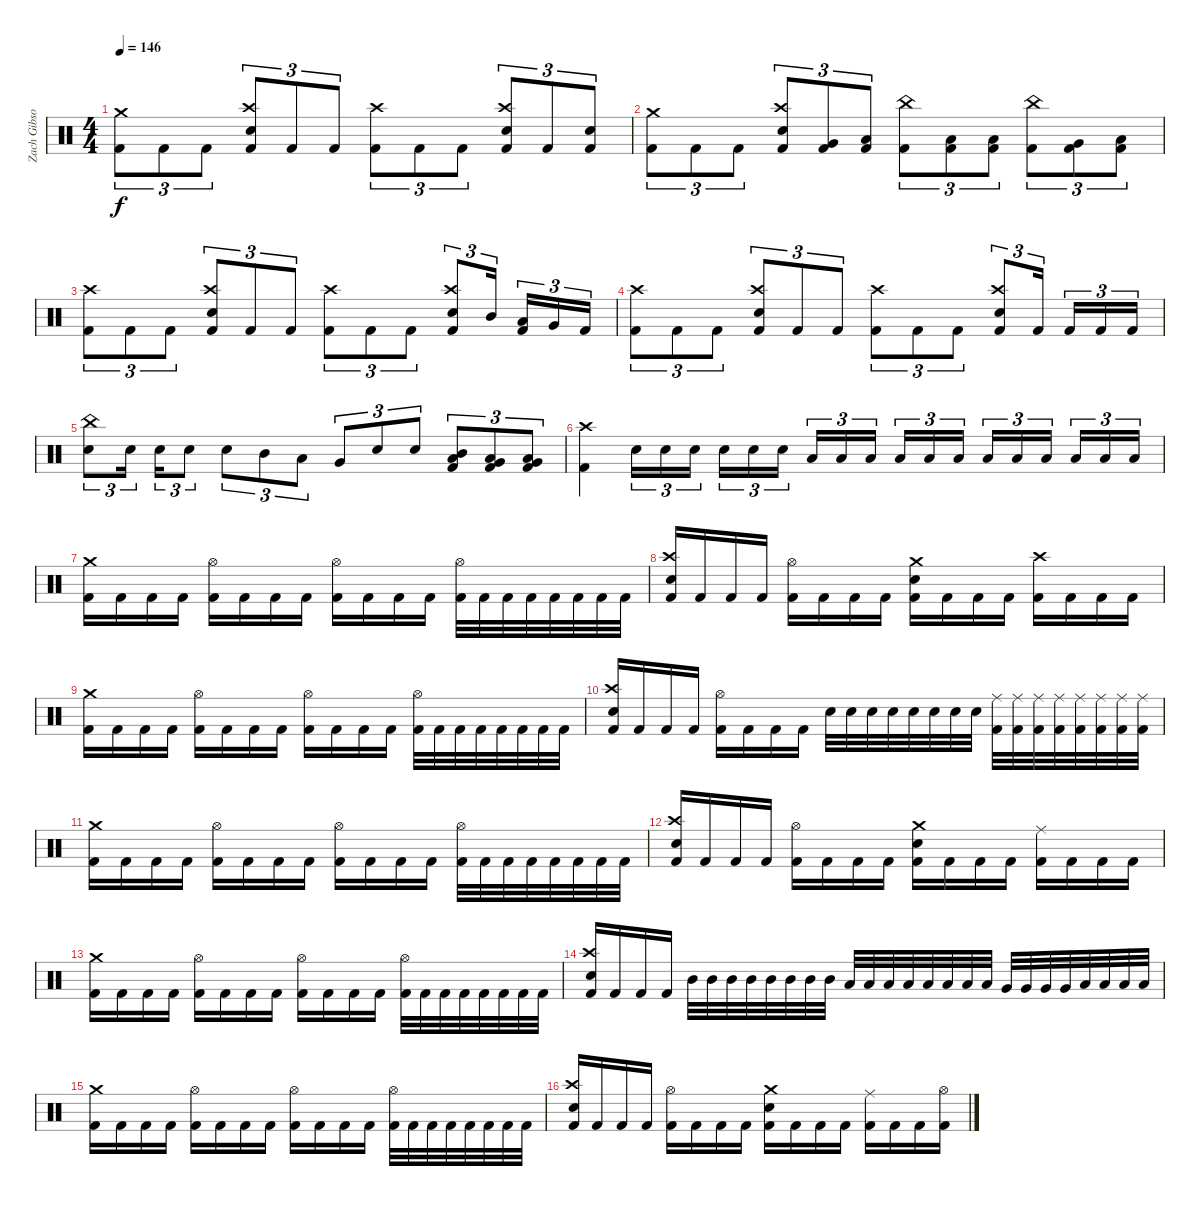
\track ("Zach Gibson (Drums)" "Zach Gibso") {instrument percussion}
\staff {score}
\articulation defaults
\ts (4 4)
\tempo 146
\clef neutral
\ks c
("Crash medium (hit)" "Kick (hit) 2").8{tu (3 2) dy f} "Kick (hit) 2".8{tu (3 2)} "Kick (hit) 2".8{tu (3 2)} ("Crash high (hit)" "Snare (hit) 2" "Kick (hit) 2").8{tu (3 2)} "Kick (hit) 2".8{tu (3 2)} "Kick (hit) 2".8{tu (3 2)} ("Crash high (hit)" "Kick (hit) 2").8{tu (3 2)} "Kick (hit) 2".8{tu (3 2)} "Kick (hit) 2".8{tu (3 2)} ("Crash high (hit)" "Snare (hit) 2" "Kick (hit) 2").8{tu (3 2)} "Kick (hit) 2".8{tu (3 2)} ("Snare (hit) 2" "Kick (hit) 2").8{tu (3 2)} |
("Crash medium (hit)" "Kick (hit) 2").8{tu (3 2)} "Kick (hit) 2".8{tu (3 2)} "Kick (hit) 2".8{tu (3 2)} ("Crash high (hit)" "Snare (hit) 2" "Kick (hit) 2").8{tu (3 2)} ("Very Low Tom (hit)" "Kick (hit) 2").8{tu (3 2)} ("Low Floor Tom (hit)" "Kick (hit) 2").8{tu (3 2)} ("China (hit)" "Kick (hit) 2").8{tu (3 2)} ("Low Tom (hit)" "Kick (hit) 2").8{tu (3 2)} ("Low Floor Tom (hit)" "Kick (hit) 2").8{tu (3 2)} ("China (hit)" "Kick (hit) 2").8{tu (3 2)} ("Very Low Tom (hit)" "Kick (hit) 2").8{tu (3 2)} ("Low Floor Tom (hit)" "Kick (hit) 2").8{tu (3 2)} |
("Crash high (hit)" "Kick (hit) 2").8{tu (3 2)} "Kick (hit) 2".8{tu (3 2)} "Kick (hit) 2".8{tu (3 2)} ("Crash high (hit)" "Snare (hit) 2" "Kick (hit) 2").8{tu (3 2)} "Kick (hit) 2".8{tu (3 2)} "Kick (hit) 2".8{tu (3 2)} ("Crash high (hit)" "Kick (hit) 2").8{tu (3 2)} "Kick (hit) 2".8{tu (3 2)} "Kick (hit) 2".8{tu (3 2)} ("Crash high (hit)" "Snare (hit) 2" "Kick (hit) 2").8{tu (3 2)} "Mid Tom (hit)".16{tu (3 2)} ("Low Tom (hit)" "Kick (hit) 2").16{tu (3 2)} "Very Low Tom (hit)".16{tu (3 2)} "Kick (hit) 2".16{tu (3 2)} |
("Crash high (hit)" "Kick (hit) 2").8{tu (3 2)} "Kick (hit) 2".8{tu (3 2)} "Kick (hit) 2".8{tu (3 2)} ("Crash high (hit)" "Snare (hit) 2" "Kick (hit) 2").8{tu (3 2)} "Kick (hit) 2".8{tu (3 2)} "Kick (hit) 2".8{tu (3 2)} ("Crash high (hit)" "Kick (hit) 2").8{tu (3 2)} "Kick (hit) 2".8{tu (3 2)} "Kick (hit) 2".8{tu (3 2)} ("Crash high (hit)" "Snare (hit) 2" "Kick (hit) 2").8{tu (3 2)} "Kick (hit) 2".16{tu (3 2)} "Kick (hit) 2".16{tu (3 2)} "Kick (hit) 2".16{tu (3 2)} "Kick (hit) 2".16{tu (3 2)} |
("China (hit)" "Snare (hit) 2").8{tu (3 2)} "Snare (hit) 2".16{tu (3 2)} "Snare (hit) 2".16{tu (3 2)} "Snare (hit) 2".8{tu (3 2)} "Snare (hit) 2".8{tu (3 2)} "Mid Tom (hit)".8{tu (3 2)} "Low Tom (hit)".8{tu (3 2)} "Very Low Tom (hit)".8{tu (3 2)} "Snare (hit) 2".8{tu (3 2)} "Snare (hit) 2".8{tu (3 2)} ("Mid Tom (hit)" "Kick (hit) 2" "Low Tom (hit)").8{tu (3 2)} ("Low Tom (hit)" "Kick (hit) 2" "Very Low Tom (hit)").8{tu (3 2)} ("Very Low Tom (hit)" "Kick (hit) 2" "Low Floor Tom (hit)").8{tu (3 2)} |
("Crash high (hit)" "Kick (hit) 2").4 "Snare (hit) 2".16{tu (3 2)} "Snare (hit) 2".16{tu (3 2)} "Snare (hit) 2".16{tu (3 2)} "Snare (hit) 2".16{tu (3 2)} "Snare (hit) 2".16{tu (3 2)} "Snare (hit) 2".16{tu (3 2)} "Low Tom (hit)".16{tu (3 2)} "Low Tom (hit)".16{tu (3 2)} "Low Tom (hit)".16{tu (3 2)} "Low Tom (hit)".16{tu (3 2)} "Low Tom (hit)".16{tu (3 2)} "Low Tom (hit)".16{tu (3 2)} "Low Floor Tom (hit)".16{tu (3 2)} "Low Floor Tom (hit)".16{tu (3 2)} "Low Floor Tom (hit)".16{tu (3 2)} "Low Floor Tom (hit)".16{tu (3 2)} "Low Floor Tom (hit)".16{tu (3 2)} "Low Floor Tom (hit)".16{tu (3 2)} |
("Crash medium (hit)" "Kick (hit) 2").16 "Kick (hit) 2".16 "Kick (hit) 2".16 "Kick (hit) 2".16 ("Hi-Hat (open)" "Kick (hit) 2").16 "Kick (hit) 2".16 "Kick (hit) 2".16 "Kick (hit) 2".16 ("Hi-Hat (open)" "Kick (hit) 2").16 "Kick (hit) 2".16 "Kick (hit) 2".16 "Kick (hit) 2".16 ("Hi-Hat (open)" "Kick (hit) 2").32 "Kick (hit) 2".32 "Kick (hit) 2".32 "Kick (hit) 2".32 "Kick (hit) 2".32 "Kick (hit) 2".32 "Kick (hit) 2".32 "Kick (hit) 2".32 |
("Snare (hit) 2" "Crash high (hit)" "Kick (hit) 2").16 "Kick (hit) 2".16 "Kick (hit) 2".16 "Kick (hit) 2".16 ("Hi-Hat (open)" "Kick (hit) 2").16 "Kick (hit) 2".16 "Kick (hit) 2".16 "Kick (hit) 2".16 ("Snare (hit) 2" "Crash medium (hit)" "Kick (hit) 2").16 "Kick (hit) 2".16 "Kick (hit) 2".16 "Kick (hit) 2".16 ("Crash high (hit)" "Kick (hit) 2").16 "Kick (hit) 2".16 "Kick (hit) 2".16 "Kick (hit) 2".16 |
("Crash medium (hit)" "Kick (hit) 2").16 "Kick (hit) 2".16 "Kick (hit) 2".16 "Kick (hit) 2".16 ("Hi-Hat (open)" "Kick (hit) 2").16 "Kick (hit) 2".16 "Kick (hit) 2".16 "Kick (hit) 2".16 ("Hi-Hat (open)" "Kick (hit) 2").16 "Kick (hit) 2".16 "Kick (hit) 2".16 "Kick (hit) 2".16 ("Hi-Hat (open)" "Kick (hit) 2").32 "Kick (hit) 2".32 "Kick (hit) 2".32 "Kick (hit) 2".32 "Kick (hit) 2".32 "Kick (hit) 2".32 "Kick (hit) 2".32 "Kick (hit) 2".32 |
("Snare (hit) 2" "Crash high (hit)" "Kick (hit) 2").16 "Kick (hit) 2".16 "Kick (hit) 2".16 "Kick (hit) 2".16 ("Hi-Hat (open)" "Kick (hit) 2").16 "Kick (hit) 2".16 "Kick (hit) 2".16 "Kick (hit) 2".16 "Snare (hit) 2".32 "Snare (hit) 2".32 "Snare (hit) 2".32 "Snare (hit) 2".32 "Snare (hit) 2".32 "Snare (hit) 2".32 "Snare (hit) 2".32 "Snare (hit) 2".32 ("Ride (middle)" "Kick (hit) 2").32 ("Ride (middle)" "Kick (hit) 2").32 ("Ride (middle)" "Kick (hit) 2").32 ("Ride (middle)" "Kick (hit) 2").32 ("Ride (middle)" "Kick (hit) 2").32 ("Ride (middle)" "Kick (hit) 2").32 ("Ride (middle)" "Kick (hit) 2").32 ("Ride (middle)" "Kick (hit) 2").32 |
("Crash medium (hit)" "Kick (hit) 2").16 "Kick (hit) 2".16 "Kick (hit) 2".16 "Kick (hit) 2".16 ("Hi-Hat (open)" "Kick (hit) 2").16 "Kick (hit) 2".16 "Kick (hit) 2".16 "Kick (hit) 2".16 ("Hi-Hat (open)" "Kick (hit) 2").16 "Kick (hit) 2".16 "Kick (hit) 2".16 "Kick (hit) 2".16 ("Hi-Hat (open)" "Kick (hit) 2").32 "Kick (hit) 2".32 "Kick (hit) 2".32 "Kick (hit) 2".32 "Kick (hit) 2".32 "Kick (hit) 2".32 "Kick (hit) 2".32 "Kick (hit) 2".32 |
("Snare (hit) 2" "Crash high (hit)" "Kick (hit) 2").16 "Kick (hit) 2".16 "Kick (hit) 2".16 "Kick (hit) 2".16 ("Hi-Hat (open)" "Kick (hit) 2").16 "Kick (hit) 2".16 "Kick (hit) 2".16 "Kick (hit) 2".16 ("Snare (hit) 2" "Crash medium (hit)" "Kick (hit) 2").16 "Kick (hit) 2".16 "Kick (hit) 2".16 "Kick (hit) 2".16 ("Ride (middle)" "Kick (hit) 2").16 "Kick (hit) 2".16 "Kick (hit) 2".16 "Kick (hit) 2".16 |
("Crash medium (hit)" "Kick (hit) 2").16 "Kick (hit) 2".16 "Kick (hit) 2".16 "Kick (hit) 2".16 ("Hi-Hat (open)" "Kick (hit) 2").16 "Kick (hit) 2".16 "Kick (hit) 2".16 "Kick (hit) 2".16 ("Hi-Hat (open)" "Kick (hit) 2").16 "Kick (hit) 2".16 "Kick (hit) 2".16 "Kick (hit) 2".16 ("Hi-Hat (open)" "Kick (hit) 2").32 "Kick (hit) 2".32 "Kick (hit) 2".32 "Kick (hit) 2".32 "Kick (hit) 2".32 "Kick (hit) 2".32 "Kick (hit) 2".32 "Kick (hit) 2".32 |
("Snare (hit) 2" "Crash high (hit)" "Kick (hit) 2").16 "Kick (hit) 2".16 "Kick (hit) 2".16 "Kick (hit) 2".16 "Mid Tom (hit)".32 "Mid Tom (hit)".32 "Mid Tom (hit)".32 "Mid Tom (hit)".32 "Mid Tom (hit)".32 "Mid Tom (hit)".32 "Mid Tom (hit)".32 "Mid Tom (hit)".32 "Low Tom (hit)".32 "Low Tom (hit)".32 "Low Tom (hit)".32 "Low Tom (hit)".32 "Low Tom (hit)".32 "Low Tom (hit)".32 "Low Tom (hit)".32 "Low Tom (hit)".32 "Very Low Tom (hit)".32 "Very Low Tom (hit)".32 "Very Low Tom (hit)".32 "Very Low Tom (hit)".32 "Low Floor Tom (hit)".32 "Low Floor Tom (hit)".32 "Low Floor Tom (hit)".32 "Low Floor Tom (hit)".32 |
("Crash medium (hit)" "Kick (hit) 2").16 "Kick (hit) 2".16 "Kick (hit) 2".16 "Kick (hit) 2".16 ("Hi-Hat (open)" "Kick (hit) 2").16 "Kick (hit) 2".16 "Kick (hit) 2".16 "Kick (hit) 2".16 ("Hi-Hat (open)" "Kick (hit) 2").16 "Kick (hit) 2".16 "Kick (hit) 2".16 "Kick (hit) 2".16 ("Hi-Hat (open)" "Kick (hit) 2").32 "Kick (hit) 2".32 "Kick (hit) 2".32 "Kick (hit) 2".32 "Kick (hit) 2".32 "Kick (hit) 2".32 "Kick (hit) 2".32 "Kick (hit) 2".32 |
("Snare (hit) 2" "Crash high (hit)" "Kick (hit) 2").16 "Kick (hit) 2".16 "Kick (hit) 2".16 "Kick (hit) 2".16 ("Hi-Hat (open)" "Kick (hit) 2").16 "Kick (hit) 2".16 "Kick (hit) 2".16 "Kick (hit) 2".16 ("Snare (hit) 2" "Crash medium (hit)" "Kick (hit) 2").16 "Kick (hit) 2".16 "Kick (hit) 2".16 "Kick (hit) 2".16 ("Ride (middle)" "Kick (hit) 2").16 "Kick (hit) 2".16 "Kick (hit) 2".16 ("Hi-Hat (open)" "Kick (hit) 2").16
